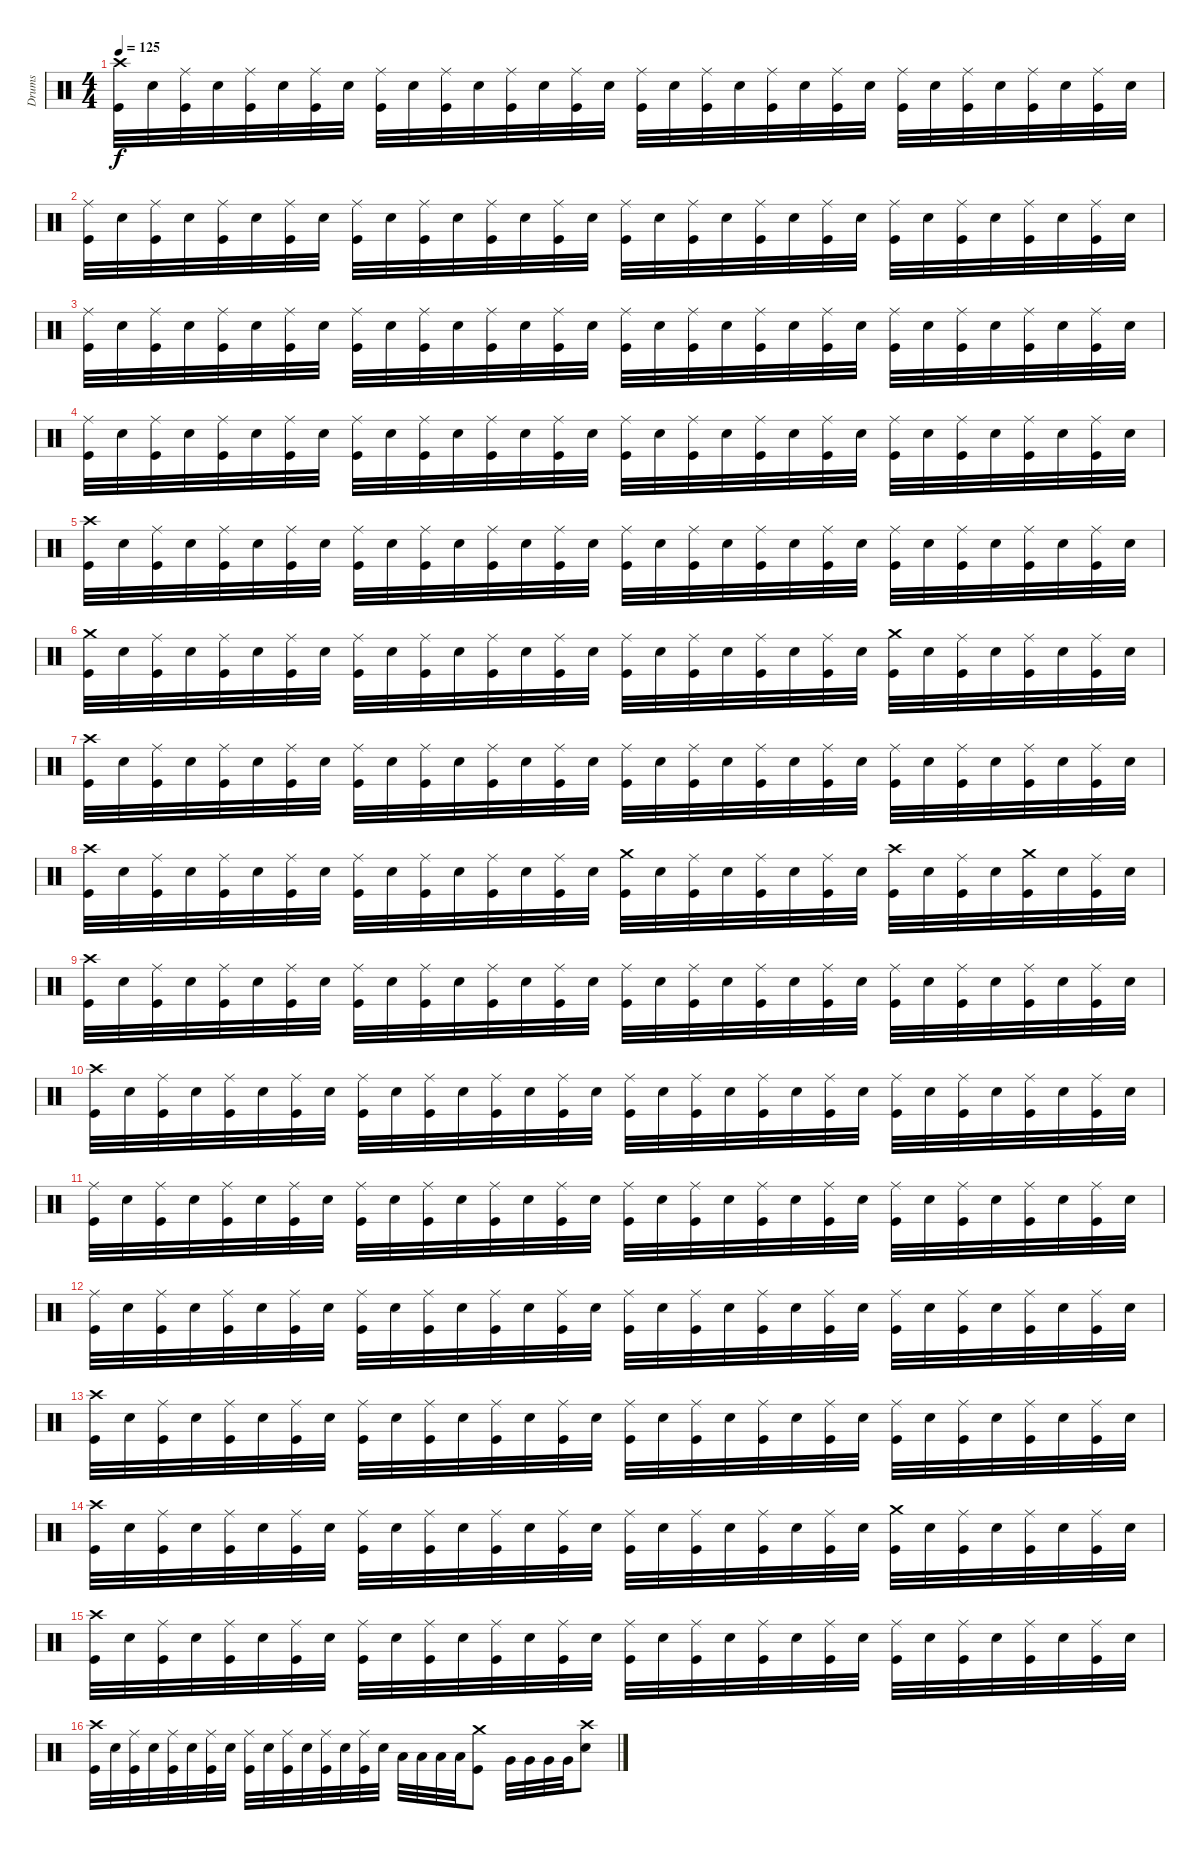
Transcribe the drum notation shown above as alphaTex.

\track ("Drums" "Drums") {instrument percussion}
\staff {score}
\articulation defaults
\ts (4 4)
\tempo 125
\clef neutral
\ks c
("Crash high (hit)" "Kick (hit)").32{dy f} "Electric Snare (hit)".32 ("Ride (middle)" "Kick (hit)").32 "Electric Snare (hit)".32 ("Ride (middle)" "Kick (hit)").32 "Electric Snare (hit)".32 ("Ride (middle)" "Kick (hit)").32 "Electric Snare (hit)".32 ("Ride (middle)" "Kick (hit)").32 "Electric Snare (hit)".32 ("Ride (middle)" "Kick (hit)").32 "Electric Snare (hit)".32 ("Ride (middle)" "Kick (hit)").32 "Electric Snare (hit)".32 ("Ride (middle)" "Kick (hit)").32 "Electric Snare (hit)".32 ("Ride (middle)" "Kick (hit)").32 "Electric Snare (hit)".32 ("Ride (middle)" "Kick (hit)").32 "Electric Snare (hit)".32 ("Ride (middle)" "Kick (hit)").32 "Electric Snare (hit)".32 ("Ride (middle)" "Kick (hit)").32 "Electric Snare (hit)".32 ("Ride (middle)" "Kick (hit)").32 "Electric Snare (hit)".32 ("Ride (middle)" "Kick (hit)").32 "Electric Snare (hit)".32 ("Ride (middle)" "Kick (hit)").32 "Electric Snare (hit)".32 ("Ride (middle)" "Kick (hit)").32 "Electric Snare (hit)".32 |
("Ride (middle)" "Kick (hit)").32 "Electric Snare (hit)".32 ("Ride (middle)" "Kick (hit)").32 "Electric Snare (hit)".32 ("Ride (middle)" "Kick (hit)").32 "Electric Snare (hit)".32 ("Ride (middle)" "Kick (hit)").32 "Electric Snare (hit)".32 ("Ride (middle)" "Kick (hit)").32 "Electric Snare (hit)".32 ("Ride (middle)" "Kick (hit)").32 "Electric Snare (hit)".32 ("Ride (middle)" "Kick (hit)").32 "Electric Snare (hit)".32 ("Ride (middle)" "Kick (hit)").32 "Electric Snare (hit)".32 ("Ride (middle)" "Kick (hit)").32 "Electric Snare (hit)".32 ("Ride (middle)" "Kick (hit)").32 "Electric Snare (hit)".32 ("Ride (middle)" "Kick (hit)").32 "Electric Snare (hit)".32 ("Ride (middle)" "Kick (hit)").32 "Electric Snare (hit)".32 ("Ride (middle)" "Kick (hit)").32 "Electric Snare (hit)".32 ("Ride (middle)" "Kick (hit)").32 "Electric Snare (hit)".32 ("Ride (middle)" "Kick (hit)").32 "Electric Snare (hit)".32 ("Ride (middle)" "Kick (hit)").32 "Electric Snare (hit)".32 |
("Ride (middle)" "Kick (hit)").32 "Electric Snare (hit)".32 ("Ride (middle)" "Kick (hit)").32 "Electric Snare (hit)".32 ("Ride (middle)" "Kick (hit)").32 "Electric Snare (hit)".32 ("Ride (middle)" "Kick (hit)").32 "Electric Snare (hit)".32 ("Ride (middle)" "Kick (hit)").32 "Electric Snare (hit)".32 ("Ride (middle)" "Kick (hit)").32 "Electric Snare (hit)".32 ("Ride (middle)" "Kick (hit)").32 "Electric Snare (hit)".32 ("Ride (middle)" "Kick (hit)").32 "Electric Snare (hit)".32 ("Ride (middle)" "Kick (hit)").32 "Electric Snare (hit)".32 ("Ride (middle)" "Kick (hit)").32 "Electric Snare (hit)".32 ("Ride (middle)" "Kick (hit)").32 "Electric Snare (hit)".32 ("Ride (middle)" "Kick (hit)").32 "Electric Snare (hit)".32 ("Ride (middle)" "Kick (hit)").32 "Electric Snare (hit)".32 ("Ride (middle)" "Kick (hit)").32 "Electric Snare (hit)".32 ("Ride (middle)" "Kick (hit)").32 "Electric Snare (hit)".32 ("Ride (middle)" "Kick (hit)").32 "Electric Snare (hit)".32 |
("Ride (middle)" "Kick (hit)").32 "Electric Snare (hit)".32 ("Ride (middle)" "Kick (hit)").32 "Electric Snare (hit)".32 ("Ride (middle)" "Kick (hit)").32 "Electric Snare (hit)".32 ("Ride (middle)" "Kick (hit)").32 "Electric Snare (hit)".32 ("Ride (middle)" "Kick (hit)").32 "Electric Snare (hit)".32 ("Ride (middle)" "Kick (hit)").32 "Electric Snare (hit)".32 ("Ride (middle)" "Kick (hit)").32 "Electric Snare (hit)".32 ("Ride (middle)" "Kick (hit)").32 "Electric Snare (hit)".32 ("Ride (middle)" "Kick (hit)").32 "Electric Snare (hit)".32 ("Ride (middle)" "Kick (hit)").32 "Electric Snare (hit)".32 ("Ride (middle)" "Kick (hit)").32 "Electric Snare (hit)".32 ("Ride (middle)" "Kick (hit)").32 "Electric Snare (hit)".32 ("Ride (middle)" "Kick (hit)").32 "Electric Snare (hit)".32 ("Ride (middle)" "Kick (hit)").32 "Electric Snare (hit)".32 ("Ride (middle)" "Kick (hit)").32 "Electric Snare (hit)".32 ("Ride (middle)" "Kick (hit)").32 "Electric Snare (hit)".32 |
("Crash high (hit)" "Kick (hit)").32 "Electric Snare (hit)".32 ("Ride (middle)" "Kick (hit)").32 "Electric Snare (hit)".32 ("Ride (middle)" "Kick (hit)").32 "Electric Snare (hit)".32 ("Ride (middle)" "Kick (hit)").32 "Electric Snare (hit)".32 ("Ride (middle)" "Kick (hit)").32 "Electric Snare (hit)".32 ("Ride (middle)" "Kick (hit)").32 "Electric Snare (hit)".32 ("Ride (middle)" "Kick (hit)").32 "Electric Snare (hit)".32 ("Ride (middle)" "Kick (hit)").32 "Electric Snare (hit)".32 ("Ride (middle)" "Kick (hit)").32 "Electric Snare (hit)".32 ("Ride (middle)" "Kick (hit)").32 "Electric Snare (hit)".32 ("Ride (middle)" "Kick (hit)").32 "Electric Snare (hit)".32 ("Ride (middle)" "Kick (hit)").32 "Electric Snare (hit)".32 ("Ride (middle)" "Kick (hit)").32 "Electric Snare (hit)".32 ("Ride (middle)" "Kick (hit)").32 "Electric Snare (hit)".32 ("Ride (middle)" "Kick (hit)").32 "Electric Snare (hit)".32 ("Ride (middle)" "Kick (hit)").32 "Electric Snare (hit)".32 |
("Crash medium (hit)" "Kick (hit)").32 "Electric Snare (hit)".32 ("Ride (middle)" "Kick (hit)").32 "Electric Snare (hit)".32 ("Ride (middle)" "Kick (hit)").32 "Electric Snare (hit)".32 ("Ride (middle)" "Kick (hit)").32 "Electric Snare (hit)".32 ("Ride (middle)" "Kick (hit)").32 "Electric Snare (hit)".32 ("Ride (middle)" "Kick (hit)").32 "Electric Snare (hit)".32 ("Ride (middle)" "Kick (hit)").32 "Electric Snare (hit)".32 ("Ride (middle)" "Kick (hit)").32 "Electric Snare (hit)".32 ("Ride (middle)" "Kick (hit)").32 "Electric Snare (hit)".32 ("Ride (middle)" "Kick (hit)").32 "Electric Snare (hit)".32 ("Ride (middle)" "Kick (hit)").32 "Electric Snare (hit)".32 ("Ride (middle)" "Kick (hit)").32 "Electric Snare (hit)".32 ("Crash medium (hit)" "Kick (hit)").32 "Electric Snare (hit)".32 ("Ride (middle)" "Kick (hit)").32 "Electric Snare (hit)".32 ("Ride (middle)" "Kick (hit)").32 "Electric Snare (hit)".32 ("Ride (middle)" "Kick (hit)").32 "Electric Snare (hit)".32 |
("Crash high (hit)" "Kick (hit)").32 "Electric Snare (hit)".32 ("Ride (middle)" "Kick (hit)").32 "Electric Snare (hit)".32 ("Ride (middle)" "Kick (hit)").32 "Electric Snare (hit)".32 ("Ride (middle)" "Kick (hit)").32 "Electric Snare (hit)".32 ("Ride (middle)" "Kick (hit)").32 "Electric Snare (hit)".32 ("Ride (middle)" "Kick (hit)").32 "Electric Snare (hit)".32 ("Ride (middle)" "Kick (hit)").32 "Electric Snare (hit)".32 ("Ride (middle)" "Kick (hit)").32 "Electric Snare (hit)".32 ("Ride (middle)" "Kick (hit)").32 "Electric Snare (hit)".32 ("Ride (middle)" "Kick (hit)").32 "Electric Snare (hit)".32 ("Ride (middle)" "Kick (hit)").32 "Electric Snare (hit)".32 ("Ride (middle)" "Kick (hit)").32 "Electric Snare (hit)".32 ("Ride (middle)" "Kick (hit)").32 "Electric Snare (hit)".32 ("Ride (middle)" "Kick (hit)").32 "Electric Snare (hit)".32 ("Ride (middle)" "Kick (hit)").32 "Electric Snare (hit)".32 ("Ride (middle)" "Kick (hit)").32 "Electric Snare (hit)".32 |
("Crash high (hit)" "Kick (hit)").32 "Electric Snare (hit)".32 ("Ride (middle)" "Kick (hit)").32 "Electric Snare (hit)".32 ("Ride (middle)" "Kick (hit)").32 "Electric Snare (hit)".32 ("Ride (middle)" "Kick (hit)").32 "Electric Snare (hit)".32 ("Ride (middle)" "Kick (hit)").32 "Electric Snare (hit)".32 ("Ride (middle)" "Kick (hit)").32 "Electric Snare (hit)".32 ("Ride (middle)" "Kick (hit)").32 "Electric Snare (hit)".32 ("Ride (middle)" "Kick (hit)").32 "Electric Snare (hit)".32 ("Crash medium (hit)" "Kick (hit)").32 "Electric Snare (hit)".32 ("Ride (middle)" "Kick (hit)").32 "Electric Snare (hit)".32 ("Ride (middle)" "Kick (hit)").32 "Electric Snare (hit)".32 ("Ride (middle)" "Kick (hit)").32 "Electric Snare (hit)".32 ("Crash high (hit)" "Kick (hit)").32 "Electric Snare (hit)".32 ("Ride (middle)" "Kick (hit)").32 "Electric Snare (hit)".32 ("Crash medium (hit)" "Kick (hit)").32 "Electric Snare (hit)".32 ("Ride (middle)" "Kick (hit)").32 "Electric Snare (hit)".32 |
("Crash high (hit)" "Kick (hit)").32 "Electric Snare (hit)".32 ("Ride (middle)" "Kick (hit)").32 "Electric Snare (hit)".32 ("Ride (middle)" "Kick (hit)").32 "Electric Snare (hit)".32 ("Ride (middle)" "Kick (hit)").32 "Electric Snare (hit)".32 ("Ride (middle)" "Kick (hit)").32 "Electric Snare (hit)".32 ("Ride (middle)" "Kick (hit)").32 "Electric Snare (hit)".32 ("Ride (middle)" "Kick (hit)").32 "Electric Snare (hit)".32 ("Ride (middle)" "Kick (hit)").32 "Electric Snare (hit)".32 ("Ride (middle)" "Kick (hit)").32 "Electric Snare (hit)".32 ("Ride (middle)" "Kick (hit)").32 "Electric Snare (hit)".32 ("Ride (middle)" "Kick (hit)").32 "Electric Snare (hit)".32 ("Ride (middle)" "Kick (hit)").32 "Electric Snare (hit)".32 ("Ride (middle)" "Kick (hit)").32 "Electric Snare (hit)".32 ("Ride (middle)" "Kick (hit)").32 "Electric Snare (hit)".32 ("Ride (middle)" "Kick (hit)").32 "Electric Snare (hit)".32 ("Ride (middle)" "Kick (hit)").32 "Electric Snare (hit)".32 |
("Crash high (hit)" "Kick (hit)").32 "Electric Snare (hit)".32 ("Ride (middle)" "Kick (hit)").32 "Electric Snare (hit)".32 ("Ride (middle)" "Kick (hit)").32 "Electric Snare (hit)".32 ("Ride (middle)" "Kick (hit)").32 "Electric Snare (hit)".32 ("Ride (middle)" "Kick (hit)").32 "Electric Snare (hit)".32 ("Ride (middle)" "Kick (hit)").32 "Electric Snare (hit)".32 ("Ride (middle)" "Kick (hit)").32 "Electric Snare (hit)".32 ("Ride (middle)" "Kick (hit)").32 "Electric Snare (hit)".32 ("Ride (middle)" "Kick (hit)").32 "Electric Snare (hit)".32 ("Ride (middle)" "Kick (hit)").32 "Electric Snare (hit)".32 ("Ride (middle)" "Kick (hit)").32 "Electric Snare (hit)".32 ("Ride (middle)" "Kick (hit)").32 "Electric Snare (hit)".32 ("Ride (middle)" "Kick (hit)").32 "Electric Snare (hit)".32 ("Ride (middle)" "Kick (hit)").32 "Electric Snare (hit)".32 ("Ride (middle)" "Kick (hit)").32 "Electric Snare (hit)".32 ("Ride (middle)" "Kick (hit)").32 "Electric Snare (hit)".32 |
("Ride (middle)" "Kick (hit)").32 "Electric Snare (hit)".32 ("Ride (middle)" "Kick (hit)").32 "Electric Snare (hit)".32 ("Ride (middle)" "Kick (hit)").32 "Electric Snare (hit)".32 ("Ride (middle)" "Kick (hit)").32 "Electric Snare (hit)".32 ("Ride (middle)" "Kick (hit)").32 "Electric Snare (hit)".32 ("Ride (middle)" "Kick (hit)").32 "Electric Snare (hit)".32 ("Ride (middle)" "Kick (hit)").32 "Electric Snare (hit)".32 ("Ride (middle)" "Kick (hit)").32 "Electric Snare (hit)".32 ("Ride (middle)" "Kick (hit)").32 "Electric Snare (hit)".32 ("Ride (middle)" "Kick (hit)").32 "Electric Snare (hit)".32 ("Ride (middle)" "Kick (hit)").32 "Electric Snare (hit)".32 ("Ride (middle)" "Kick (hit)").32 "Electric Snare (hit)".32 ("Ride (middle)" "Kick (hit)").32 "Electric Snare (hit)".32 ("Ride (middle)" "Kick (hit)").32 "Electric Snare (hit)".32 ("Ride (middle)" "Kick (hit)").32 "Electric Snare (hit)".32 ("Ride (middle)" "Kick (hit)").32 "Electric Snare (hit)".32 |
("Ride (middle)" "Kick (hit)").32 "Electric Snare (hit)".32 ("Ride (middle)" "Kick (hit)").32 "Electric Snare (hit)".32 ("Ride (middle)" "Kick (hit)").32 "Electric Snare (hit)".32 ("Ride (middle)" "Kick (hit)").32 "Electric Snare (hit)".32 ("Ride (middle)" "Kick (hit)").32 "Electric Snare (hit)".32 ("Ride (middle)" "Kick (hit)").32 "Electric Snare (hit)".32 ("Ride (middle)" "Kick (hit)").32 "Electric Snare (hit)".32 ("Ride (middle)" "Kick (hit)").32 "Electric Snare (hit)".32 ("Ride (middle)" "Kick (hit)").32 "Electric Snare (hit)".32 ("Ride (middle)" "Kick (hit)").32 "Electric Snare (hit)".32 ("Ride (middle)" "Kick (hit)").32 "Electric Snare (hit)".32 ("Ride (middle)" "Kick (hit)").32 "Electric Snare (hit)".32 ("Ride (middle)" "Kick (hit)").32 "Electric Snare (hit)".32 ("Ride (middle)" "Kick (hit)").32 "Electric Snare (hit)".32 ("Ride (middle)" "Kick (hit)").32 "Electric Snare (hit)".32 ("Ride (middle)" "Kick (hit)").32 "Electric Snare (hit)".32 |
("Crash high (hit)" "Kick (hit)").32 "Electric Snare (hit)".32 ("Ride (middle)" "Kick (hit)").32 "Electric Snare (hit)".32 ("Ride (middle)" "Kick (hit)").32 "Electric Snare (hit)".32 ("Ride (middle)" "Kick (hit)").32 "Electric Snare (hit)".32 ("Ride (middle)" "Kick (hit)").32 "Electric Snare (hit)".32 ("Ride (middle)" "Kick (hit)").32 "Electric Snare (hit)".32 ("Ride (middle)" "Kick (hit)").32 "Electric Snare (hit)".32 ("Ride (middle)" "Kick (hit)").32 "Electric Snare (hit)".32 ("Ride (middle)" "Kick (hit)").32 "Electric Snare (hit)".32 ("Ride (middle)" "Kick (hit)").32 "Electric Snare (hit)".32 ("Ride (middle)" "Kick (hit)").32 "Electric Snare (hit)".32 ("Ride (middle)" "Kick (hit)").32 "Electric Snare (hit)".32 ("Ride (middle)" "Kick (hit)").32 "Electric Snare (hit)".32 ("Ride (middle)" "Kick (hit)").32 "Electric Snare (hit)".32 ("Ride (middle)" "Kick (hit)").32 "Electric Snare (hit)".32 ("Ride (middle)" "Kick (hit)").32 "Electric Snare (hit)".32 |
("Crash high (hit)" "Kick (hit)").32 "Electric Snare (hit)".32 ("Ride (middle)" "Kick (hit)").32 "Electric Snare (hit)".32 ("Ride (middle)" "Kick (hit)").32 "Electric Snare (hit)".32 ("Ride (middle)" "Kick (hit)").32 "Electric Snare (hit)".32 ("Ride (middle)" "Kick (hit)").32 "Electric Snare (hit)".32 ("Ride (middle)" "Kick (hit)").32 "Electric Snare (hit)".32 ("Ride (middle)" "Kick (hit)").32 "Electric Snare (hit)".32 ("Ride (middle)" "Kick (hit)").32 "Electric Snare (hit)".32 ("Ride (middle)" "Kick (hit)").32 "Electric Snare (hit)".32 ("Ride (middle)" "Kick (hit)").32 "Electric Snare (hit)".32 ("Ride (middle)" "Kick (hit)").32 "Electric Snare (hit)".32 ("Ride (middle)" "Kick (hit)").32 "Electric Snare (hit)".32 ("Crash medium (hit)" "Kick (hit)").32 "Electric Snare (hit)".32 ("Ride (middle)" "Kick (hit)").32 "Electric Snare (hit)".32 ("Ride (middle)" "Kick (hit)").32 "Electric Snare (hit)".32 ("Ride (middle)" "Kick (hit)").32 "Electric Snare (hit)".32 |
("Crash high (hit)" "Kick (hit)").32 "Electric Snare (hit)".32 ("Ride (middle)" "Kick (hit)").32 "Electric Snare (hit)".32 ("Ride (middle)" "Kick (hit)").32 "Electric Snare (hit)".32 ("Ride (middle)" "Kick (hit)").32 "Electric Snare (hit)".32 ("Ride (middle)" "Kick (hit)").32 "Electric Snare (hit)".32 ("Ride (middle)" "Kick (hit)").32 "Electric Snare (hit)".32 ("Ride (middle)" "Kick (hit)").32 "Electric Snare (hit)".32 ("Ride (middle)" "Kick (hit)").32 "Electric Snare (hit)".32 ("Ride (middle)" "Kick (hit)").32 "Electric Snare (hit)".32 ("Ride (middle)" "Kick (hit)").32 "Electric Snare (hit)".32 ("Ride (middle)" "Kick (hit)").32 "Electric Snare (hit)".32 ("Ride (middle)" "Kick (hit)").32 "Electric Snare (hit)".32 ("Ride (middle)" "Kick (hit)").32 "Electric Snare (hit)".32 ("Ride (middle)" "Kick (hit)").32 "Electric Snare (hit)".32 ("Ride (middle)" "Kick (hit)").32 "Electric Snare (hit)".32 ("Ride (middle)" "Kick (hit)").32 "Electric Snare (hit)".32 |
("Crash high (hit)" "Kick (hit)").32 "Electric Snare (hit)".32 ("Ride (middle)" "Kick (hit)").32 "Electric Snare (hit)".32 ("Ride (middle)" "Kick (hit)").32 "Electric Snare (hit)".32 ("Ride (middle)" "Kick (hit)").32 "Electric Snare (hit)".32 ("Ride (middle)" "Kick (hit)").32 "Electric Snare (hit)".32 ("Ride (middle)" "Kick (hit)").32 "Electric Snare (hit)".32 ("Ride (middle)" "Kick (hit)").32 "Electric Snare (hit)".32 ("Ride (middle)" "Kick (hit)").32 "Electric Snare (hit)".32 "Low Tom (hit)".32 "Low Tom (hit)".32 "Low Tom (hit)".32 "Low Tom (hit)".32 ("Crash medium (hit)" "Kick (hit)").8 "Very Low Tom (hit)".32 "Very Low Tom (hit)".32 "Very Low Tom (hit)".32 "Very Low Tom (hit)".32 ("Crash high (hit)" "Electric Snare (hit)").8
